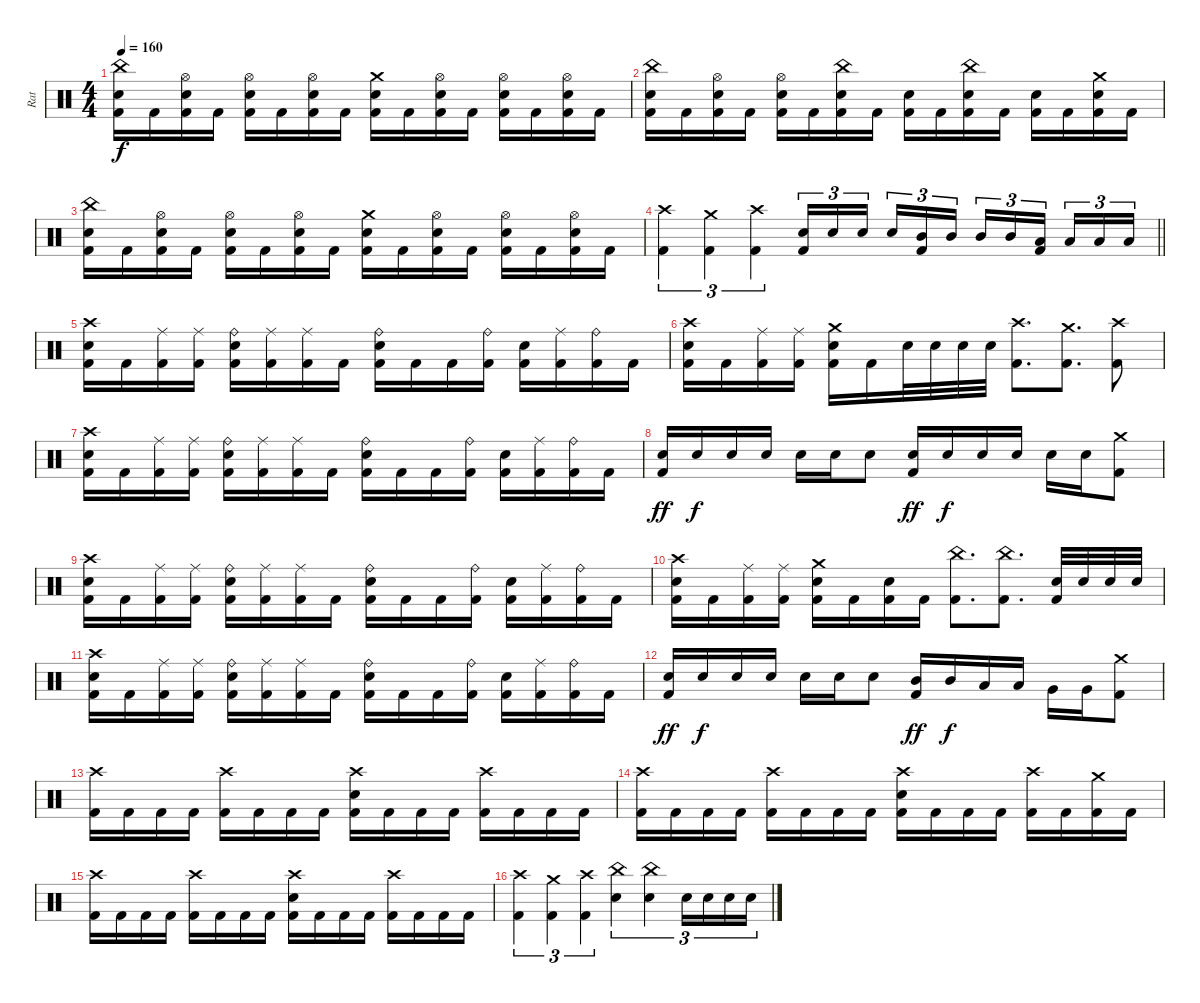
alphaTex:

\track ("Rat" "Rat") {instrument percussion}
\staff {score}
\articulation defaults
\ts (4 4)
\tempo 160
\clef neutral
\ks c
("China (hit)" "Electric Snare (hit)" "Kick (hit) 2").16{dy f} "Kick (hit) 2".16 ("Hi-Hat (open)" "Electric Snare (hit)" "Kick (hit) 2").16 "Kick (hit) 2".16 ("Hi-Hat (open)" "Electric Snare (hit)" "Kick (hit) 2").16 "Kick (hit) 2".16 ("Hi-Hat (open)" "Electric Snare (hit)" "Kick (hit) 2").16 "Kick (hit) 2".16 ("Crash medium (hit)" "Electric Snare (hit)" "Kick (hit) 2").16 "Kick (hit) 2".16 ("Hi-Hat (open)" "Electric Snare (hit)" "Kick (hit) 2").16 "Kick (hit) 2".16 ("Hi-Hat (open)" "Electric Snare (hit)" "Kick (hit) 2").16 "Kick (hit) 2".16 ("Hi-Hat (open)" "Electric Snare (hit)" "Kick (hit) 2").16 "Kick (hit) 2".16 |
("China (hit)" "Electric Snare (hit)" "Kick (hit) 2").16 "Kick (hit) 2".16 ("Hi-Hat (open)" "Electric Snare (hit)" "Kick (hit) 2").16 "Kick (hit) 2".16 ("Hi-Hat (open)" "Electric Snare (hit)" "Kick (hit) 2").16 "Kick (hit) 2".16 ("China (hit)" "Electric Snare (hit)" "Kick (hit) 2").16 "Kick (hit) 2".16 ("Electric Snare (hit)" "Kick (hit) 2").16 "Kick (hit) 2".16 ("China (hit)" "Electric Snare (hit)" "Kick (hit) 2").16 "Kick (hit) 2".16 ("Electric Snare (hit)" "Kick (hit) 2").16 "Kick (hit) 2".16 ("Crash medium (hit)" "Electric Snare (hit)" "Kick (hit) 2").16 "Kick (hit) 2".16 |
("China (hit)" "Electric Snare (hit)" "Kick (hit) 2").16 "Kick (hit) 2".16 ("Hi-Hat (open)" "Electric Snare (hit)" "Kick (hit) 2").16 "Kick (hit) 2".16 ("Hi-Hat (open)" "Electric Snare (hit)" "Kick (hit) 2").16 "Kick (hit) 2".16 ("Hi-Hat (open)" "Electric Snare (hit)" "Kick (hit) 2").16 "Kick (hit) 2".16 ("Crash medium (hit)" "Electric Snare (hit)" "Kick (hit) 2").16 "Kick (hit) 2".16 ("Hi-Hat (open)" "Electric Snare (hit)" "Kick (hit) 2").16 "Kick (hit) 2".16 ("Hi-Hat (open)" "Electric Snare (hit)" "Kick (hit) 2").16 "Kick (hit) 2".16 ("Hi-Hat (open)" "Electric Snare (hit)" "Kick (hit) 2").16 "Kick (hit) 2".16 |
\barLineRight lightlight
("Crash high (hit)" "Kick (hit) 2").4{tu (3 2)} ("Crash medium (hit)" "Kick (hit) 2").4{tu (3 2)} ("Crash high (hit)" "Kick (hit) 2").4{tu (3 2)} ("Electric Snare (hit)" "Kick (hit) 2").16{tu (3 2)} "Electric Snare (hit)".16{tu (3 2)} "Electric Snare (hit)".16{tu (3 2) beam splitsecondary} "Electric Snare (hit)".16{tu (3 2)} ("Mid Tom (hit)" "Kick (hit) 2").16{tu (3 2)} "Mid Tom (hit)".16{tu (3 2)} "Mid Tom (hit)".16{tu (3 2)} "Mid Tom (hit)".16{tu (3 2)} ("Low Tom (hit)" "Kick (hit) 2").16{tu (3 2) beam splitsecondary} "Low Tom (hit)".16{tu (3 2)} "Low Tom (hit)".16{tu (3 2)} "Low Tom (hit)".16{tu (3 2)} |
("Crash high (hit)" "Electric Snare (hit)" "Kick (hit) 2").16 "Kick (hit) 2".16 ("Ride (middle)" "Kick (hit) 2").16 ("Ride (middle)" "Kick (hit) 2").16 ("Ride (bell)" "Electric Snare (hit)" "Kick (hit) 2").16 ("Ride (middle)" "Kick (hit) 2").16 ("Ride (middle)" "Kick (hit) 2").16 "Kick (hit) 2".16 ("Ride (bell)" "Electric Snare (hit)" "Kick (hit) 2").16 "Kick (hit) 2".16 "Kick (hit) 2".16 ("Ride (bell)" "Kick (hit) 2").16 ("Electric Snare (hit)" "Kick (hit) 2").16 ("Ride (middle)" "Kick (hit) 2").16 ("Ride (bell)" "Kick (hit) 2").16 "Kick (hit) 2".16 |
("Crash high (hit)" "Electric Snare (hit)" "Kick (hit) 2").16 "Kick (hit) 2".16 ("Ride (middle)" "Kick (hit) 2").16 ("Ride (middle)" "Kick (hit) 2").16 ("Crash medium (hit)" "Electric Snare (hit)" "Kick (hit) 2").16 "Kick (hit) 2".16 "Electric Snare (hit)".32 "Electric Snare (hit)".32 "Electric Snare (hit)".32 "Electric Snare (hit)".32 ("Crash high (hit)" "Kick (hit) 2").8{d} ("Crash medium (hit)" "Kick (hit) 2").8{d} ("Crash high (hit)" "Kick (hit) 2").8 |
("Crash high (hit)" "Electric Snare (hit)" "Kick (hit) 2").16 "Kick (hit) 2".16 ("Ride (middle)" "Kick (hit) 2").16 ("Ride (middle)" "Kick (hit) 2").16 ("Ride (bell)" "Electric Snare (hit)" "Kick (hit) 2").16 ("Ride (middle)" "Kick (hit) 2").16 ("Ride (middle)" "Kick (hit) 2").16 "Kick (hit) 2".16 ("Ride (bell)" "Electric Snare (hit)" "Kick (hit) 2").16 "Kick (hit) 2".16 "Kick (hit) 2".16 ("Ride (bell)" "Kick (hit) 2").16 ("Electric Snare (hit)" "Kick (hit) 2").16 ("Ride (middle)" "Kick (hit) 2").16 ("Ride (bell)" "Kick (hit) 2").16 "Kick (hit) 2".16 |
("Electric Snare (hit)" "Kick (hit) 2").16{dy ff} "Electric Snare (hit)".16{dy f} "Electric Snare (hit)".16 "Electric Snare (hit)".16 "Electric Snare (hit)".16 "Electric Snare (hit)".16 "Electric Snare (hit)".8 ("Electric Snare (hit)" "Kick (hit) 2").16{dy ff} "Electric Snare (hit)".16{dy f} "Electric Snare (hit)".16 "Electric Snare (hit)".16 "Electric Snare (hit)".16 "Electric Snare (hit)".16 ("Crash medium (hit)" "Kick (hit) 2").8 |
("Crash high (hit)" "Electric Snare (hit)" "Kick (hit) 2").16 "Kick (hit) 2".16 ("Ride (middle)" "Kick (hit) 2").16 ("Ride (middle)" "Kick (hit) 2").16 ("Ride (bell)" "Electric Snare (hit)" "Kick (hit) 2").16 ("Ride (middle)" "Kick (hit) 2").16 ("Ride (middle)" "Kick (hit) 2").16 "Kick (hit) 2".16 ("Ride (bell)" "Electric Snare (hit)" "Kick (hit) 2").16 "Kick (hit) 2".16 "Kick (hit) 2".16 ("Ride (bell)" "Kick (hit) 2").16 ("Electric Snare (hit)" "Kick (hit) 2").16 ("Ride (middle)" "Kick (hit) 2").16 ("Ride (bell)" "Kick (hit) 2").16 "Kick (hit) 2".16 |
("Crash high (hit)" "Electric Snare (hit)" "Kick (hit) 2").16 "Kick (hit) 2".16 ("Ride (middle)" "Kick (hit) 2").16 ("Ride (middle)" "Kick (hit) 2").16 ("Crash medium (hit)" "Electric Snare (hit)" "Kick (hit) 2").16 "Kick (hit) 2".16 ("Electric Snare (hit)" "Kick (hit) 2").16 "Kick (hit) 2".16 ("China (hit)" "Kick (hit) 2").8{d} ("China (hit)" "Kick (hit) 2").8{d} ("Electric Snare (hit)" "Kick (hit) 2").32 "Electric Snare (hit)".32 "Electric Snare (hit)".32 "Electric Snare (hit)".32 |
("Crash high (hit)" "Electric Snare (hit)" "Kick (hit) 2").16 "Kick (hit) 2".16 ("Ride (middle)" "Kick (hit) 2").16 ("Ride (middle)" "Kick (hit) 2").16 ("Ride (bell)" "Electric Snare (hit)" "Kick (hit) 2").16 ("Ride (middle)" "Kick (hit) 2").16 ("Ride (middle)" "Kick (hit) 2").16 "Kick (hit) 2".16 ("Ride (bell)" "Electric Snare (hit)" "Kick (hit) 2").16 "Kick (hit) 2".16 "Kick (hit) 2".16 ("Ride (bell)" "Kick (hit) 2").16 ("Electric Snare (hit)" "Kick (hit) 2").16 ("Ride (middle)" "Kick (hit) 2").16 ("Ride (bell)" "Kick (hit) 2").16 "Kick (hit) 2".16 |
("Electric Snare (hit)" "Kick (hit) 2").16{dy ff} "Electric Snare (hit)".16{dy f} "Electric Snare (hit)".16 "Electric Snare (hit)".16 "Electric Snare (hit)".16 "Electric Snare (hit)".16 "Electric Snare (hit)".8 ("Mid Tom (hit)" "Kick (hit) 2").16{dy ff} "Mid Tom (hit)".16{dy f} "Low Tom (hit)".16 "Low Tom (hit)".16 "Very Low Tom (hit)".16 "Very Low Tom (hit)".16 ("Crash medium (hit)" "Kick (hit) 2").8 |
("Crash high (hit)" "Kick (hit) 2").16 "Kick (hit) 2".16 "Kick (hit) 2".16 "Kick (hit) 2".16 ("Crash high (hit)" "Kick (hit) 2").16 "Kick (hit) 2".16 "Kick (hit) 2".16 "Kick (hit) 2".16 ("Crash high (hit)" "Electric Snare (hit)" "Kick (hit) 2").16 "Kick (hit) 2".16 "Kick (hit) 2".16 "Kick (hit) 2".16 ("Crash high (hit)" "Kick (hit) 2").16 "Kick (hit) 2".16 "Kick (hit) 2".16 "Kick (hit) 2".16 |
("Crash high (hit)" "Kick (hit) 2").16 "Kick (hit) 2".16 "Kick (hit) 2".16 "Kick (hit) 2".16 ("Crash high (hit)" "Kick (hit) 2").16 "Kick (hit) 2".16 "Kick (hit) 2".16 "Kick (hit) 2".16 ("Crash high (hit)" "Electric Snare (hit)" "Kick (hit) 2").16 "Kick (hit) 2".16 "Kick (hit) 2".16 "Kick (hit) 2".16 ("Crash high (hit)" "Kick (hit) 2").16 "Kick (hit) 2".16 ("Crash medium (hit)" "Kick (hit) 2").16 "Kick (hit) 2".16 |
("Crash high (hit)" "Kick (hit) 2").16 "Kick (hit) 2".16 "Kick (hit) 2".16 "Kick (hit) 2".16 ("Crash high (hit)" "Kick (hit) 2").16 "Kick (hit) 2".16 "Kick (hit) 2".16 "Kick (hit) 2".16 ("Crash high (hit)" "Electric Snare (hit)" "Kick (hit) 2").16 "Kick (hit) 2".16 "Kick (hit) 2".16 "Kick (hit) 2".16 ("Crash high (hit)" "Kick (hit) 2").16 "Kick (hit) 2".16 "Kick (hit) 2".16 "Kick (hit) 2".16 |
("Crash high (hit)" "Kick (hit) 2").4{tu (3 2)} ("Crash medium (hit)" "Kick (hit) 2").4{tu (3 2)} ("Crash high (hit)" "Kick (hit) 2").4{tu (3 2)} ("China (hit)" "Electric Snare (hit)").4{tu (3 2)} ("China (hit)" "Electric Snare (hit)").4{tu (3 2)} "Electric Snare (hit)".16{tu (3 2)} "Electric Snare (hit)".16{tu (3 2)} "Electric Snare (hit)".16{tu (3 2)} "Electric Snare (hit)".16{tu (3 2)}
